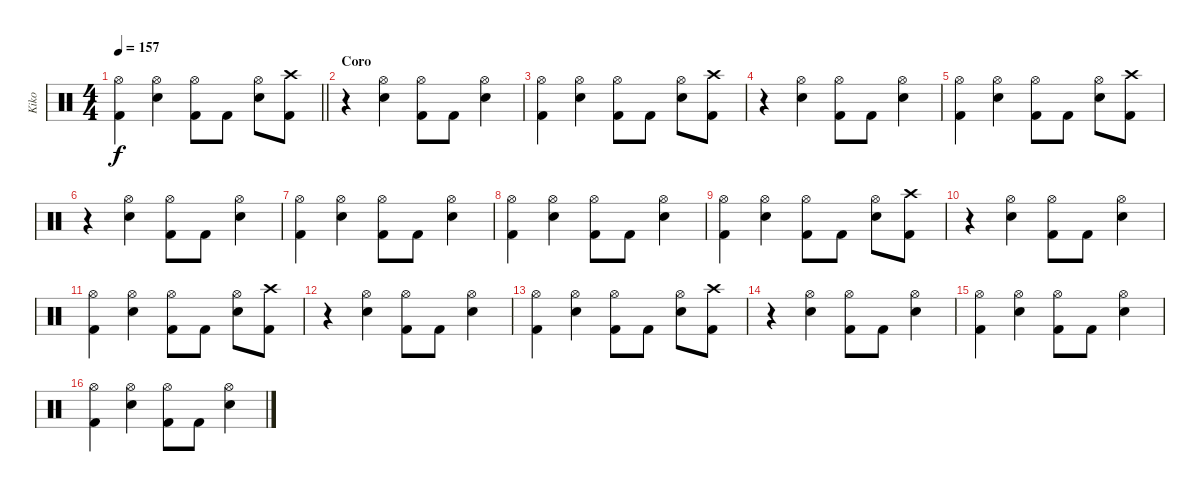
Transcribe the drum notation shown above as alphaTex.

\track ("Kiko" "Kiko") {instrument percussion}
\staff {score}
\articulation defaults
\ts (4 4)
\tempo 157
\clef neutral
\barLineRight lightlight
\ks c
("Hi-Hat (open)" "Kick (hit) 2").4{dy f} ("Hi-Hat (open)" "Electric Snare (hit)").4 ("Hi-Hat (open)" "Kick (hit) 2").8 "Kick (hit) 2".8 ("Hi-Hat (open)" "Electric Snare (hit)").8 ("Crash high (hit)" "Kick (hit) 2").8 |
\section ("" "Coro")
r.4 ("Hi-Hat (open)" "Electric Snare (hit)").4 ("Hi-Hat (open)" "Kick (hit) 2").8 "Kick (hit) 2".8 ("Hi-Hat (open)" "Electric Snare (hit)").4 |
("Hi-Hat (open)" "Kick (hit) 2").4 ("Hi-Hat (open)" "Electric Snare (hit)").4 ("Hi-Hat (open)" "Kick (hit) 2").8 "Kick (hit) 2".8 ("Hi-Hat (open)" "Electric Snare (hit)").8 ("Crash high (hit)" "Kick (hit) 2").8 |
r.4 ("Hi-Hat (open)" "Electric Snare (hit)").4 ("Hi-Hat (open)" "Kick (hit) 2").8 "Kick (hit) 2".8 ("Hi-Hat (open)" "Electric Snare (hit)").4 |
("Hi-Hat (open)" "Kick (hit) 2").4 ("Hi-Hat (open)" "Electric Snare (hit)").4 ("Hi-Hat (open)" "Kick (hit) 2").8 "Kick (hit) 2".8 ("Hi-Hat (open)" "Electric Snare (hit)").8 ("Crash high (hit)" "Kick (hit) 2").8 |
r.4 ("Hi-Hat (open)" "Electric Snare (hit)").4 ("Hi-Hat (open)" "Kick (hit) 2").8 "Kick (hit) 2".8 ("Hi-Hat (open)" "Electric Snare (hit)").4 |
("Hi-Hat (open)" "Kick (hit) 2").4 ("Hi-Hat (open)" "Electric Snare (hit)").4 ("Hi-Hat (open)" "Kick (hit) 2").8 "Kick (hit) 2".8 ("Hi-Hat (open)" "Electric Snare (hit)").4 |
("Hi-Hat (open)" "Kick (hit) 2").4 ("Hi-Hat (open)" "Electric Snare (hit)").4 ("Hi-Hat (open)" "Kick (hit) 2").8 "Kick (hit) 2".8 ("Hi-Hat (open)" "Electric Snare (hit)").4 |
("Hi-Hat (open)" "Kick (hit) 2").4 ("Hi-Hat (open)" "Electric Snare (hit)").4 ("Hi-Hat (open)" "Kick (hit) 2").8 "Kick (hit) 2".8 ("Hi-Hat (open)" "Electric Snare (hit)").8 ("Crash high (hit)" "Kick (hit) 2").8 |
r.4 ("Hi-Hat (open)" "Electric Snare (hit)").4 ("Hi-Hat (open)" "Kick (hit) 2").8 "Kick (hit) 2".8 ("Hi-Hat (open)" "Electric Snare (hit)").4 |
("Hi-Hat (open)" "Kick (hit) 2").4 ("Hi-Hat (open)" "Electric Snare (hit)").4 ("Hi-Hat (open)" "Kick (hit) 2").8 "Kick (hit) 2".8 ("Hi-Hat (open)" "Electric Snare (hit)").8 ("Crash high (hit)" "Kick (hit) 2").8 |
r.4 ("Hi-Hat (open)" "Electric Snare (hit)").4 ("Hi-Hat (open)" "Kick (hit) 2").8 "Kick (hit) 2".8 ("Hi-Hat (open)" "Electric Snare (hit)").4 |
("Hi-Hat (open)" "Kick (hit) 2").4 ("Hi-Hat (open)" "Electric Snare (hit)").4 ("Hi-Hat (open)" "Kick (hit) 2").8 "Kick (hit) 2".8 ("Hi-Hat (open)" "Electric Snare (hit)").8 ("Crash high (hit)" "Kick (hit) 2").8 |
r.4 ("Hi-Hat (open)" "Electric Snare (hit)").4 ("Hi-Hat (open)" "Kick (hit) 2").8 "Kick (hit) 2".8 ("Hi-Hat (open)" "Electric Snare (hit)").4 |
("Hi-Hat (open)" "Kick (hit) 2").4 ("Hi-Hat (open)" "Electric Snare (hit)").4 ("Hi-Hat (open)" "Kick (hit) 2").8 "Kick (hit) 2".8 ("Hi-Hat (open)" "Electric Snare (hit)").4 |
("Hi-Hat (open)" "Kick (hit) 2").4 ("Hi-Hat (open)" "Electric Snare (hit)").4 ("Hi-Hat (open)" "Kick (hit) 2").8 "Kick (hit) 2".8 ("Hi-Hat (open)" "Electric Snare (hit)").4
